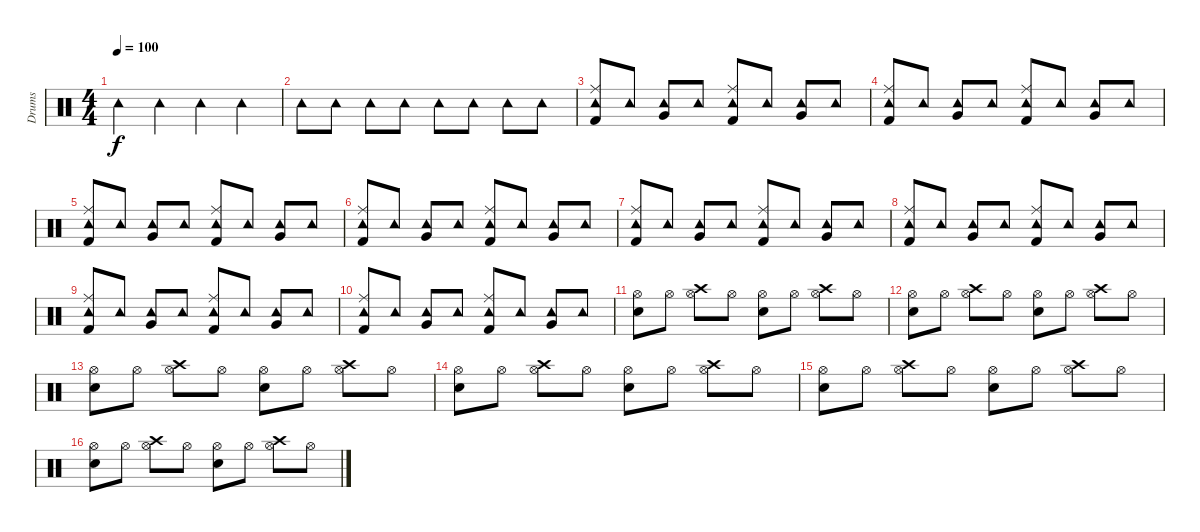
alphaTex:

\track ("Drums" "Drums") {instrument percussion}
\staff {score}
\articulation defaults
\ts (4 4)
\tempo 100
\clef neutral
\ks c "Tambourine (hit)".4{dy f} "Tambourine (hit)".4 "Tambourine (hit)".4 "Tambourine (hit)".4
|
"Tambourine (hit)".8 "Tambourine (hit)".8 "Tambourine (hit)".8 "Tambourine (hit)".8 "Tambourine (hit)".8 "Tambourine (hit)".8 "Tambourine (hit)".8 "Tambourine (hit)".8 |
("Ride (middle)" "Kick (hit) 2" "Tambourine (hit)").8 "Tambourine (hit)".8 ("Very Low Tom (hit)" "Tambourine (hit)").8 "Tambourine (hit)".8 ("Ride (middle)" "Kick (hit) 2" "Tambourine (hit)").8 "Tambourine (hit)".8 ("Very Low Tom (hit)" "Tambourine (hit)").8 "Tambourine (hit)".8 |
("Ride (middle)" "Kick (hit) 2" "Tambourine (hit)").8 "Tambourine (hit)".8 ("Very Low Tom (hit)" "Tambourine (hit)").8 "Tambourine (hit)".8 ("Ride (middle)" "Kick (hit) 2" "Tambourine (hit)").8 "Tambourine (hit)".8 ("Very Low Tom (hit)" "Tambourine (hit)").8 "Tambourine (hit)".8 |
("Ride (middle)" "Kick (hit) 2" "Tambourine (hit)").8 "Tambourine (hit)".8 ("Very Low Tom (hit)" "Tambourine (hit)").8 "Tambourine (hit)".8 ("Ride (middle)" "Kick (hit) 2" "Tambourine (hit)").8 "Tambourine (hit)".8 ("Very Low Tom (hit)" "Tambourine (hit)").8 "Tambourine (hit)".8 |
("Ride (middle)" "Kick (hit) 2" "Tambourine (hit)").8 "Tambourine (hit)".8 ("Very Low Tom (hit)" "Tambourine (hit)").8 "Tambourine (hit)".8 ("Ride (middle)" "Kick (hit) 2" "Tambourine (hit)").8 "Tambourine (hit)".8 ("Very Low Tom (hit)" "Tambourine (hit)").8 "Tambourine (hit)".8 |
("Ride (middle)" "Kick (hit) 2" "Tambourine (hit)").8 "Tambourine (hit)".8 ("Very Low Tom (hit)" "Tambourine (hit)").8 "Tambourine (hit)".8 ("Ride (middle)" "Kick (hit) 2" "Tambourine (hit)").8 "Tambourine (hit)".8 ("Very Low Tom (hit)" "Tambourine (hit)").8 "Tambourine (hit)".8 |
("Ride (middle)" "Kick (hit) 2" "Tambourine (hit)").8 "Tambourine (hit)".8 ("Very Low Tom (hit)" "Tambourine (hit)").8 "Tambourine (hit)".8 ("Ride (middle)" "Kick (hit) 2" "Tambourine (hit)").8 "Tambourine (hit)".8 ("Very Low Tom (hit)" "Tambourine (hit)").8 "Tambourine (hit)".8 |
("Ride (middle)" "Kick (hit) 2" "Tambourine (hit)").8 "Tambourine (hit)".8 ("Very Low Tom (hit)" "Tambourine (hit)").8 "Tambourine (hit)".8 ("Ride (middle)" "Kick (hit) 2" "Tambourine (hit)").8 "Tambourine (hit)".8 ("Very Low Tom (hit)" "Tambourine (hit)").8 "Tambourine (hit)".8 |
("Ride (middle)" "Kick (hit) 2" "Tambourine (hit)").8 "Tambourine (hit)".8 ("Very Low Tom (hit)" "Tambourine (hit)").8 "Tambourine (hit)".8 ("Ride (middle)" "Kick (hit) 2" "Tambourine (hit)").8 "Tambourine (hit)".8 ("Very Low Tom (hit)" "Tambourine (hit)").8 "Tambourine (hit)".8 |
("Snare (hit) 2" "Hi-Hat (open)").8 "Hi-Hat (open)".8 ("Crash high (hit)" "Hi-Hat (open)").8 "Hi-Hat (open)".8 ("Snare (hit) 2" "Hi-Hat (open)").8 "Hi-Hat (open)".8 ("Crash high (hit)" "Hi-Hat (open)").8 "Hi-Hat (open)".8 |
("Snare (hit) 2" "Hi-Hat (open)").8 "Hi-Hat (open)".8 ("Crash high (hit)" "Hi-Hat (open)").8 "Hi-Hat (open)".8 ("Snare (hit) 2" "Hi-Hat (open)").8 "Hi-Hat (open)".8 ("Crash high (hit)" "Hi-Hat (open)").8 "Hi-Hat (open)".8 |
("Snare (hit) 2" "Hi-Hat (open)").8 "Hi-Hat (open)".8 ("Crash high (hit)" "Hi-Hat (open)").8 "Hi-Hat (open)".8 ("Snare (hit) 2" "Hi-Hat (open)").8 "Hi-Hat (open)".8 ("Crash high (hit)" "Hi-Hat (open)").8 "Hi-Hat (open)".8 |
("Snare (hit) 2" "Hi-Hat (open)").8 "Hi-Hat (open)".8 ("Crash high (hit)" "Hi-Hat (open)").8 "Hi-Hat (open)".8 ("Snare (hit) 2" "Hi-Hat (open)").8 "Hi-Hat (open)".8 ("Crash high (hit)" "Hi-Hat (open)").8 "Hi-Hat (open)".8 |
("Snare (hit) 2" "Hi-Hat (open)").8 "Hi-Hat (open)".8 ("Crash high (hit)" "Hi-Hat (open)").8 "Hi-Hat (open)".8 ("Snare (hit) 2" "Hi-Hat (open)").8 "Hi-Hat (open)".8 ("Crash high (hit)" "Hi-Hat (open)").8 "Hi-Hat (open)".8 |
("Snare (hit) 2" "Hi-Hat (open)").8 "Hi-Hat (open)".8 ("Crash high (hit)" "Hi-Hat (open)").8 "Hi-Hat (open)".8 ("Snare (hit) 2" "Hi-Hat (open)").8 "Hi-Hat (open)".8 ("Crash high (hit)" "Hi-Hat (open)").8 "Hi-Hat (open)".8
